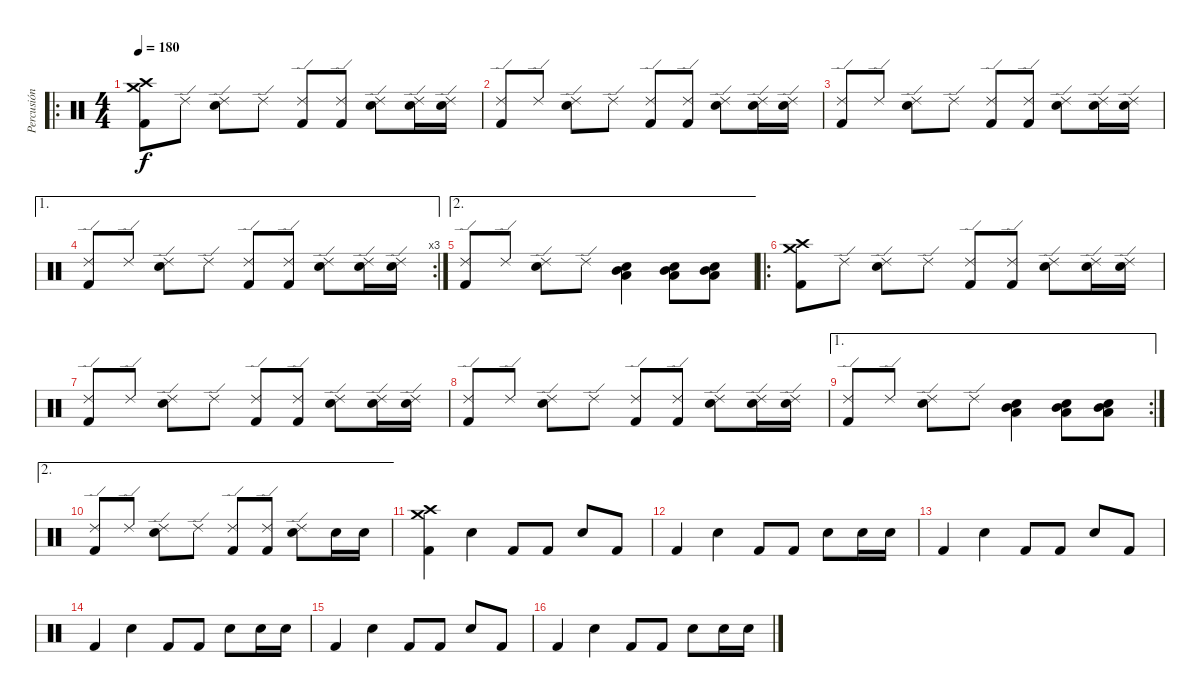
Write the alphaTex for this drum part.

\track ("Percusión" "Percusión") {instrument percussion}
\staff {score}
\articulation defaults
\ro
\ts (4 4)
\tempo 180
\clef neutral
\ks c
("Crash medium (hit)" "Crash high (hit)" "Kick (hit) 2").8{dy f} "Ride (edge) 2".8 ("Ride (edge) 2" "Snare (hit) 2").8 "Ride (edge) 2".8 ("Ride (edge) 2" "Kick (hit) 2").8 ("Ride (edge) 2" "Kick (hit) 2").8 ("Ride (edge) 2" "Snare (hit) 2").8 ("Ride (edge) 2" "Snare (hit) 2").16 ("Ride (edge) 2" "Snare (hit) 2").16 |
("Ride (edge) 2" "Kick (hit) 2").8 "Ride (edge) 2".8 ("Ride (edge) 2" "Snare (hit) 2").8 "Ride (edge) 2".8 ("Ride (edge) 2" "Kick (hit) 2").8 ("Ride (edge) 2" "Kick (hit) 2").8 ("Ride (edge) 2" "Snare (hit) 2").8 ("Ride (edge) 2" "Snare (hit) 2").16 ("Ride (edge) 2" "Snare (hit) 2").16 |
("Ride (edge) 2" "Kick (hit) 2").8 "Ride (edge) 2".8 ("Ride (edge) 2" "Snare (hit) 2").8 "Ride (edge) 2".8 ("Ride (edge) 2" "Kick (hit) 2").8 ("Ride (edge) 2" "Kick (hit) 2").8 ("Ride (edge) 2" "Snare (hit) 2").8 ("Ride (edge) 2" "Snare (hit) 2").16 ("Ride (edge) 2" "Snare (hit) 2").16 |
\ae 1
\rc 3
("Ride (edge) 2" "Kick (hit) 2").8 "Ride (edge) 2".8 ("Ride (edge) 2" "Snare (hit) 2").8 "Ride (edge) 2".8 ("Ride (edge) 2" "Kick (hit) 2").8 ("Ride (edge) 2" "Kick (hit) 2").8 ("Ride (edge) 2" "Snare (hit) 2").8 ("Ride (edge) 2" "Snare (hit) 2").16 ("Ride (edge) 2" "Snare (hit) 2").16 |
\ae 2
("Ride (edge) 2" "Kick (hit) 2").8 "Ride (edge) 2".8 ("Ride (edge) 2" "Snare (hit) 2").8 "Ride (edge) 2".8 ("Low Tom (hit)" "Snare (hit) 2" "Mid Tom (hit)").4 ("Low Tom (hit)" "Snare (hit) 2" "Mid Tom (hit)").8 ("Low Tom (hit)" "Snare (hit) 2" "Mid Tom (hit)").8 |
\ro
("Crash medium (hit)" "Crash high (hit)" "Kick (hit) 2").8 "Ride (edge) 2".8 ("Ride (edge) 2" "Snare (hit) 2").8 "Ride (edge) 2".8 ("Ride (edge) 2" "Kick (hit) 2").8 ("Ride (edge) 2" "Kick (hit) 2").8 ("Ride (edge) 2" "Snare (hit) 2").8 ("Ride (edge) 2" "Snare (hit) 2").16 ("Ride (edge) 2" "Snare (hit) 2").16 |
("Ride (edge) 2" "Kick (hit) 2").8 "Ride (edge) 2".8 ("Ride (edge) 2" "Snare (hit) 2").8 "Ride (edge) 2".8 ("Ride (edge) 2" "Kick (hit) 2").8 ("Ride (edge) 2" "Kick (hit) 2").8 ("Ride (edge) 2" "Snare (hit) 2").8 ("Ride (edge) 2" "Snare (hit) 2").16 ("Ride (edge) 2" "Snare (hit) 2").16 |
("Ride (edge) 2" "Kick (hit) 2").8 "Ride (edge) 2".8 ("Ride (edge) 2" "Snare (hit) 2").8 "Ride (edge) 2".8 ("Ride (edge) 2" "Kick (hit) 2").8 ("Ride (edge) 2" "Kick (hit) 2").8 ("Ride (edge) 2" "Snare (hit) 2").8 ("Ride (edge) 2" "Snare (hit) 2").16 ("Ride (edge) 2" "Snare (hit) 2").16 |
\ae 1
\rc 2
("Ride (edge) 2" "Kick (hit) 2").8 "Ride (edge) 2".8 ("Ride (edge) 2" "Snare (hit) 2").8 "Ride (edge) 2".8 ("Low Tom (hit)" "Snare (hit) 2" "Mid Tom (hit)").4 ("Low Tom (hit)" "Snare (hit) 2" "Mid Tom (hit)").8 ("Low Tom (hit)" "Snare (hit) 2" "Mid Tom (hit)").8 |
\ae 2
("Ride (edge) 2" "Kick (hit) 2").8 "Ride (edge) 2".8 ("Ride (edge) 2" "Snare (hit) 2").8 "Ride (edge) 2".8 ("Ride (edge) 2" "Kick (hit) 2").8 ("Ride (edge) 2" "Kick (hit) 2").8 ("Ride (edge) 2" "Snare (hit) 2").8 "Snare (hit) 2".16 "Snare (hit) 2".16 |
("Crash medium (hit)" "Crash high (hit)" "Kick (hit) 2").4 "Electric Snare (hit)".4 "Kick (hit) 2".8 "Kick (hit) 2".8 "Electric Snare (hit)".8 "Kick (hit) 2".8 |
"Kick (hit) 2".4 "Electric Snare (hit)".4 "Kick (hit) 2".8 "Kick (hit) 2".8 "Electric Snare (hit)".8 "Snare (hit) 2".16 "Snare (hit) 2".16 |
"Kick (hit) 2".4 "Electric Snare (hit)".4 "Kick (hit) 2".8 "Kick (hit) 2".8 "Electric Snare (hit)".8 "Kick (hit) 2".8 |
"Kick (hit) 2".4 "Electric Snare (hit)".4 "Kick (hit) 2".8 "Kick (hit) 2".8 "Electric Snare (hit)".8 "Snare (hit) 2".16 "Snare (hit) 2".16 |
"Kick (hit) 2".4 "Electric Snare (hit)".4 "Kick (hit) 2".8 "Kick (hit) 2".8 "Electric Snare (hit)".8 "Kick (hit) 2".8 |
"Kick (hit) 2".4 "Electric Snare (hit)".4 "Kick (hit) 2".8 "Kick (hit) 2".8 "Electric Snare (hit)".8 "Snare (hit) 2".16 "Snare (hit) 2".16
